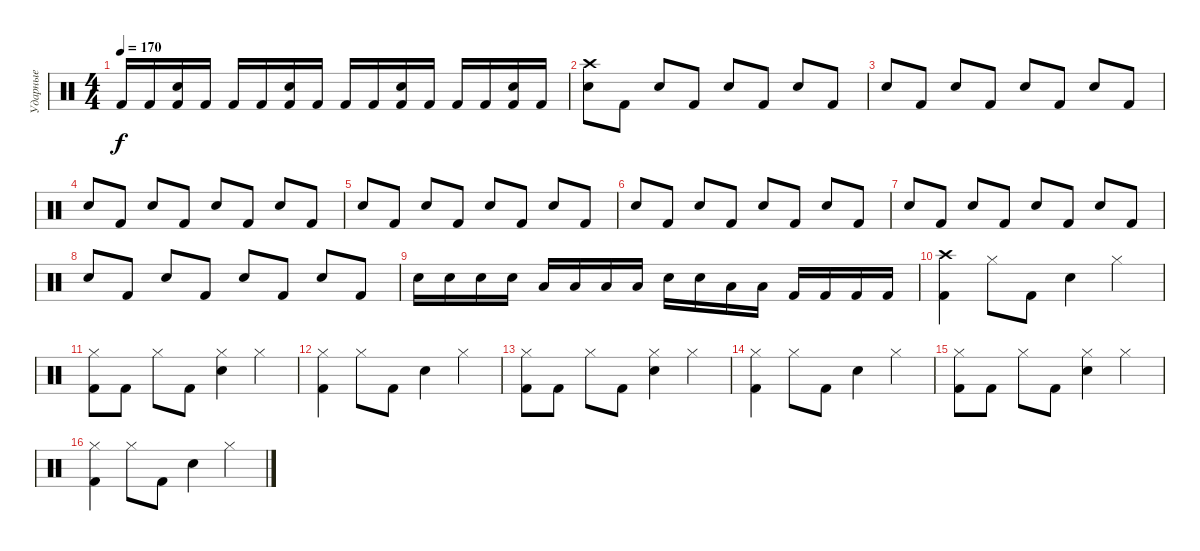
\track ("Ударные" "Ударные") {instrument percussion}
\staff {score}
\articulation defaults
\ts (4 4)
\tempo 170
\clef neutral
\ks c "Kick (hit) 2".16{dy f} "Kick (hit) 2".16
("Kick (hit) 2" "Electric Snare (hit)").16 "Kick (hit) 2".16 "Kick (hit) 2".16 "Kick (hit) 2".16 ("Kick (hit) 2" "Electric Snare (hit)").16 "Kick (hit) 2".16 "Kick (hit) 2".16 "Kick (hit) 2".16 ("Kick (hit) 2" "Electric Snare (hit)").16 "Kick (hit) 2".16 "Kick (hit) 2".16 "Kick (hit) 2".16 ("Kick (hit) 2" "Electric Snare (hit)").16 "Kick (hit) 2".16 |
("Crash high (hit)" "Electric Snare (hit)").8 "Kick (hit) 2".8 "Electric Snare (hit)".8 "Kick (hit) 2".8 "Electric Snare (hit)".8 "Kick (hit) 2".8 "Electric Snare (hit)".8 "Kick (hit) 2".8 |
"Electric Snare (hit)".8 "Kick (hit) 2".8 "Electric Snare (hit)".8 "Kick (hit) 2".8 "Electric Snare (hit)".8 "Kick (hit) 2".8 "Electric Snare (hit)".8 "Kick (hit) 2".8 |
"Electric Snare (hit)".8 "Kick (hit) 2".8 "Electric Snare (hit)".8 "Kick (hit) 2".8 "Electric Snare (hit)".8 "Kick (hit) 2".8 "Electric Snare (hit)".8 "Kick (hit) 2".8 |
"Electric Snare (hit)".8 "Kick (hit) 2".8 "Electric Snare (hit)".8 "Kick (hit) 2".8 "Electric Snare (hit)".8 "Kick (hit) 2".8 "Electric Snare (hit)".8 "Kick (hit) 2".8 |
"Electric Snare (hit)".8 "Kick (hit) 2".8 "Electric Snare (hit)".8 "Kick (hit) 2".8 "Electric Snare (hit)".8 "Kick (hit) 2".8 "Electric Snare (hit)".8 "Kick (hit) 2".8 |
"Electric Snare (hit)".8 "Kick (hit) 2".8 "Electric Snare (hit)".8 "Kick (hit) 2".8 "Electric Snare (hit)".8 "Kick (hit) 2".8 "Electric Snare (hit)".8 "Kick (hit) 2".8 |
"Electric Snare (hit)".8 "Kick (hit) 2".8 "Electric Snare (hit)".8 "Kick (hit) 2".8 "Electric Snare (hit)".8 "Kick (hit) 2".8 "Electric Snare (hit)".8 "Kick (hit) 2".8 |
"Electric Snare (hit)".16 "Electric Snare (hit)".16 "Electric Snare (hit)".16 "Electric Snare (hit)".16 "Low Tom (hit)".16 "Low Tom (hit)".16 "Low Tom (hit)".16 "Low Tom (hit)".16 "Electric Snare (hit)".16 "Electric Snare (hit)".16 "Low Tom (hit)".16 "Low Tom (hit)".16 "Kick (hit) 2".16 "Kick (hit) 2".16 "Kick (hit) 2".16 "Kick (hit) 2".16 |
("Crash high (hit)" "Kick (hit) 2").4 "Hi-Hat (closed)".8 "Kick (hit) 2".8 "Electric Snare (hit)".4 "Hi-Hat (closed)".4 |
("Kick (hit) 2" "Hi-Hat (closed)").8 "Kick (hit) 2".8 "Hi-Hat (closed)".8 "Kick (hit) 2".8 ("Hi-Hat (closed)" "Electric Snare (hit)").4 "Hi-Hat (closed)".4 |
("Kick (hit) 2" "Hi-Hat (closed)").4 "Hi-Hat (closed)".8 "Kick (hit) 2".8 "Electric Snare (hit)".4 "Hi-Hat (closed)".4 |
("Kick (hit) 2" "Hi-Hat (closed)").8 "Kick (hit) 2".8 "Hi-Hat (closed)".8 "Kick (hit) 2".8 ("Hi-Hat (closed)" "Electric Snare (hit)").4 "Hi-Hat (closed)".4 |
("Hi-Hat (closed)" "Kick (hit) 2").4 "Hi-Hat (closed)".8 "Kick (hit) 2".8 "Electric Snare (hit)".4 "Hi-Hat (closed)".4 |
("Kick (hit) 2" "Hi-Hat (closed)").8 "Kick (hit) 2".8 "Hi-Hat (closed)".8 "Kick (hit) 2".8 ("Hi-Hat (closed)" "Electric Snare (hit)").4 "Hi-Hat (closed)".4 |
("Hi-Hat (closed)" "Kick (hit) 2").4 "Hi-Hat (closed)".8 "Kick (hit) 2".8 "Electric Snare (hit)".4 "Hi-Hat (closed)".4
